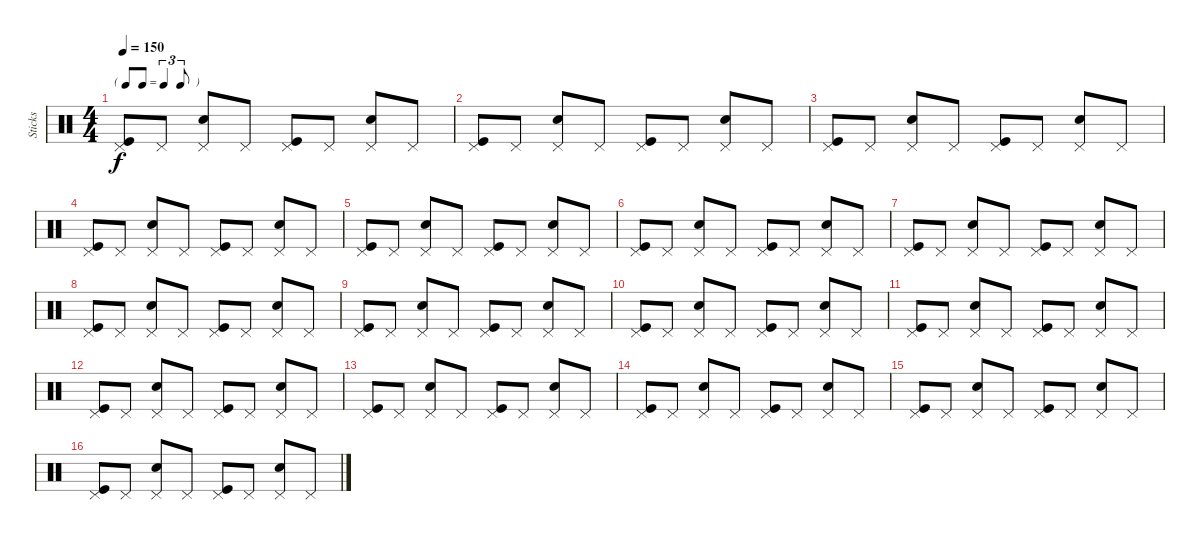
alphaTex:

\track ("Sticks" "Sticks") {instrument percussion}
\staff {score}
\articulation defaults
\ts (4 4)
\tf triplet8th
\tempo 150
\clef neutral
\ks c
("Pedal Hi-Hat (hit)" "Kick (hit)").8{dy f} "Pedal Hi-Hat (hit)".8 ("Pedal Hi-Hat (hit)" "Snare (hit) 2").8 "Pedal Hi-Hat (hit)".8 ("Pedal Hi-Hat (hit)" "Kick (hit)").8 "Pedal Hi-Hat (hit)".8 ("Pedal Hi-Hat (hit)" "Snare (hit) 2").8 "Pedal Hi-Hat (hit)".8 |
("Pedal Hi-Hat (hit)" "Kick (hit)").8 "Pedal Hi-Hat (hit)".8 ("Pedal Hi-Hat (hit)" "Snare (hit) 2").8 "Pedal Hi-Hat (hit)".8 ("Pedal Hi-Hat (hit)" "Kick (hit)").8 "Pedal Hi-Hat (hit)".8 ("Pedal Hi-Hat (hit)" "Snare (hit) 2").8 "Pedal Hi-Hat (hit)".8 |
("Pedal Hi-Hat (hit)" "Kick (hit)").8 "Pedal Hi-Hat (hit)".8 ("Pedal Hi-Hat (hit)" "Snare (hit) 2").8 "Pedal Hi-Hat (hit)".8 ("Pedal Hi-Hat (hit)" "Kick (hit)").8 "Pedal Hi-Hat (hit)".8 ("Pedal Hi-Hat (hit)" "Snare (hit) 2").8 "Pedal Hi-Hat (hit)".8 |
("Pedal Hi-Hat (hit)" "Kick (hit)").8 "Pedal Hi-Hat (hit)".8 ("Pedal Hi-Hat (hit)" "Snare (hit) 2").8 "Pedal Hi-Hat (hit)".8 ("Pedal Hi-Hat (hit)" "Kick (hit)").8 "Pedal Hi-Hat (hit)".8 ("Pedal Hi-Hat (hit)" "Snare (hit) 2").8 "Pedal Hi-Hat (hit)".8 |
("Pedal Hi-Hat (hit)" "Kick (hit)").8 "Pedal Hi-Hat (hit)".8 ("Pedal Hi-Hat (hit)" "Snare (hit) 2").8 "Pedal Hi-Hat (hit)".8 ("Pedal Hi-Hat (hit)" "Kick (hit)").8 "Pedal Hi-Hat (hit)".8 ("Pedal Hi-Hat (hit)" "Snare (hit) 2").8 "Pedal Hi-Hat (hit)".8 |
("Pedal Hi-Hat (hit)" "Kick (hit)").8 "Pedal Hi-Hat (hit)".8 ("Pedal Hi-Hat (hit)" "Snare (hit) 2").8 "Pedal Hi-Hat (hit)".8 ("Pedal Hi-Hat (hit)" "Kick (hit)").8 "Pedal Hi-Hat (hit)".8 ("Pedal Hi-Hat (hit)" "Snare (hit) 2").8 "Pedal Hi-Hat (hit)".8 |
("Pedal Hi-Hat (hit)" "Kick (hit)").8 "Pedal Hi-Hat (hit)".8 ("Pedal Hi-Hat (hit)" "Snare (hit) 2").8 "Pedal Hi-Hat (hit)".8 ("Pedal Hi-Hat (hit)" "Kick (hit)").8 "Pedal Hi-Hat (hit)".8 ("Pedal Hi-Hat (hit)" "Snare (hit) 2").8 "Pedal Hi-Hat (hit)".8 |
("Pedal Hi-Hat (hit)" "Kick (hit)").8 "Pedal Hi-Hat (hit)".8 ("Pedal Hi-Hat (hit)" "Snare (hit) 2").8 "Pedal Hi-Hat (hit)".8 ("Pedal Hi-Hat (hit)" "Kick (hit)").8 "Pedal Hi-Hat (hit)".8 ("Pedal Hi-Hat (hit)" "Snare (hit) 2").8 "Pedal Hi-Hat (hit)".8 |
("Pedal Hi-Hat (hit)" "Kick (hit)").8 "Pedal Hi-Hat (hit)".8 ("Pedal Hi-Hat (hit)" "Snare (hit) 2").8 "Pedal Hi-Hat (hit)".8 ("Pedal Hi-Hat (hit)" "Kick (hit)").8 "Pedal Hi-Hat (hit)".8 ("Pedal Hi-Hat (hit)" "Snare (hit) 2").8 "Pedal Hi-Hat (hit)".8 |
("Pedal Hi-Hat (hit)" "Kick (hit)").8 "Pedal Hi-Hat (hit)".8 ("Pedal Hi-Hat (hit)" "Snare (hit) 2").8 "Pedal Hi-Hat (hit)".8 ("Pedal Hi-Hat (hit)" "Kick (hit)").8 "Pedal Hi-Hat (hit)".8 ("Pedal Hi-Hat (hit)" "Snare (hit) 2").8 "Pedal Hi-Hat (hit)".8 |
("Pedal Hi-Hat (hit)" "Kick (hit)").8 "Pedal Hi-Hat (hit)".8 ("Pedal Hi-Hat (hit)" "Snare (hit) 2").8 "Pedal Hi-Hat (hit)".8 ("Pedal Hi-Hat (hit)" "Kick (hit)").8 "Pedal Hi-Hat (hit)".8 ("Pedal Hi-Hat (hit)" "Snare (hit) 2").8 "Pedal Hi-Hat (hit)".8 |
("Pedal Hi-Hat (hit)" "Kick (hit)").8 "Pedal Hi-Hat (hit)".8 ("Pedal Hi-Hat (hit)" "Snare (hit) 2").8 "Pedal Hi-Hat (hit)".8 ("Pedal Hi-Hat (hit)" "Kick (hit)").8 "Pedal Hi-Hat (hit)".8 ("Pedal Hi-Hat (hit)" "Snare (hit) 2").8 "Pedal Hi-Hat (hit)".8 |
("Pedal Hi-Hat (hit)" "Kick (hit)").8 "Pedal Hi-Hat (hit)".8 ("Pedal Hi-Hat (hit)" "Snare (hit) 2").8 "Pedal Hi-Hat (hit)".8 ("Pedal Hi-Hat (hit)" "Kick (hit)").8 "Pedal Hi-Hat (hit)".8 ("Pedal Hi-Hat (hit)" "Snare (hit) 2").8 "Pedal Hi-Hat (hit)".8 |
("Pedal Hi-Hat (hit)" "Kick (hit)").8 "Pedal Hi-Hat (hit)".8 ("Pedal Hi-Hat (hit)" "Snare (hit) 2").8 "Pedal Hi-Hat (hit)".8 ("Pedal Hi-Hat (hit)" "Kick (hit)").8 "Pedal Hi-Hat (hit)".8 ("Pedal Hi-Hat (hit)" "Snare (hit) 2").8 "Pedal Hi-Hat (hit)".8 |
("Pedal Hi-Hat (hit)" "Kick (hit)").8 "Pedal Hi-Hat (hit)".8 ("Pedal Hi-Hat (hit)" "Snare (hit) 2").8 "Pedal Hi-Hat (hit)".8 ("Pedal Hi-Hat (hit)" "Kick (hit)").8 "Pedal Hi-Hat (hit)".8 ("Pedal Hi-Hat (hit)" "Snare (hit) 2").8 "Pedal Hi-Hat (hit)".8 |
("Pedal Hi-Hat (hit)" "Kick (hit)").8 "Pedal Hi-Hat (hit)".8 ("Pedal Hi-Hat (hit)" "Snare (hit) 2").8 "Pedal Hi-Hat (hit)".8 ("Pedal Hi-Hat (hit)" "Kick (hit)").8 "Pedal Hi-Hat (hit)".8 ("Pedal Hi-Hat (hit)" "Snare (hit) 2").8 "Pedal Hi-Hat (hit)".8
